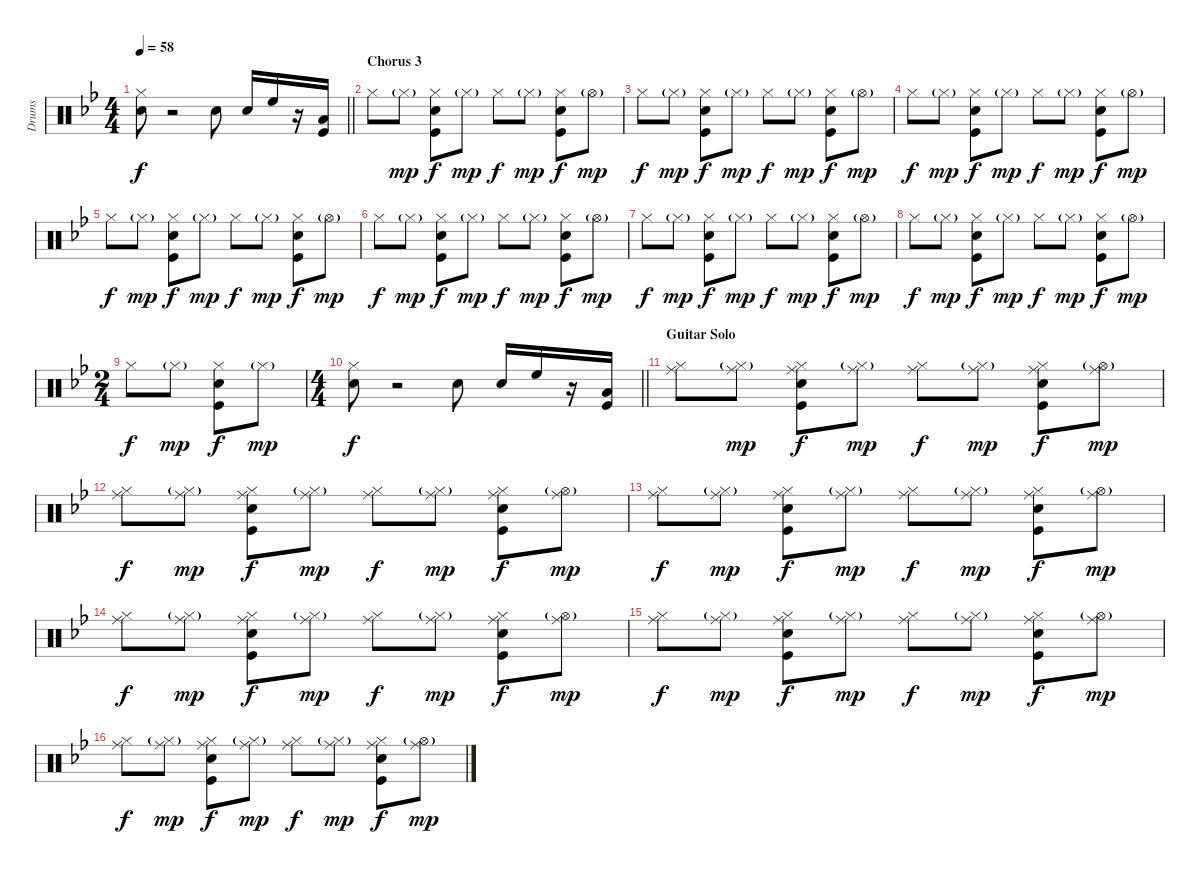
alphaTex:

\track ("Drums" "Drums") {instrument percussion}
\staff {score}
\articulation defaults
\ts (4 4)
\tempo 58
\clef neutral
\barLineRight lightlight
\ks bb
("Hi-Hat (closed)" "Snare (hit) 2").8{dy f} r.2 "Snare (hit) 2".8 "Snare (hit) 2".16 "High Floor Tom (hit)".16 r.16 ("Kick (hit)" "Low Tom (hit)").16 |
\section ("" "Chorus 3")
"Hi-Hat (closed)".8 "Hi-Hat (closed)"{g}.8{dy mp} ("Hi-Hat (closed)" "Kick (hit)" "Snare (hit) 2").8{dy f} "Hi-Hat (closed)"{g}.8{dy mp} "Hi-Hat (closed)".8{dy f} "Hi-Hat (closed)"{g}.8{dy mp} ("Hi-Hat (closed)" "Kick (hit)" "Snare (hit) 2").8{dy f} "Hi-Hat (open)"{g}.8{dy mp} |
"Hi-Hat (closed)".8{dy f} "Hi-Hat (closed)"{g}.8{dy mp} ("Hi-Hat (closed)" "Kick (hit)" "Snare (hit) 2").8{dy f} "Hi-Hat (closed)"{g}.8{dy mp} "Hi-Hat (closed)".8{dy f} "Hi-Hat (closed)"{g}.8{dy mp} ("Hi-Hat (closed)" "Kick (hit)" "Snare (hit) 2").8{dy f} "Hi-Hat (open)"{g}.8{dy mp} |
"Hi-Hat (closed)".8{dy f} "Hi-Hat (closed)"{g}.8{dy mp} ("Hi-Hat (closed)" "Kick (hit)" "Snare (hit) 2").8{dy f} "Hi-Hat (closed)"{g}.8{dy mp} "Hi-Hat (closed)".8{dy f} "Hi-Hat (closed)"{g}.8{dy mp} ("Hi-Hat (closed)" "Kick (hit)" "Snare (hit) 2").8{dy f} "Hi-Hat (open)"{g}.8{dy mp} |
"Hi-Hat (closed)".8{dy f} "Hi-Hat (closed)"{g}.8{dy mp} ("Hi-Hat (closed)" "Kick (hit)" "Snare (hit) 2").8{dy f} "Hi-Hat (closed)"{g}.8{dy mp} "Hi-Hat (closed)".8{dy f} "Hi-Hat (closed)"{g}.8{dy mp} ("Hi-Hat (closed)" "Kick (hit)" "Snare (hit) 2").8{dy f} "Hi-Hat (open)"{g}.8{dy mp} |
"Hi-Hat (closed)".8{dy f} "Hi-Hat (closed)"{g}.8{dy mp} ("Hi-Hat (closed)" "Kick (hit)" "Snare (hit) 2").8{dy f} "Hi-Hat (closed)"{g}.8{dy mp} "Hi-Hat (closed)".8{dy f} "Hi-Hat (closed)"{g}.8{dy mp} ("Hi-Hat (closed)" "Kick (hit)" "Snare (hit) 2").8{dy f} "Hi-Hat (open)"{g}.8{dy mp} |
"Hi-Hat (closed)".8{dy f} "Hi-Hat (closed)"{g}.8{dy mp} ("Hi-Hat (closed)" "Kick (hit)" "Snare (hit) 2").8{dy f} "Hi-Hat (closed)"{g}.8{dy mp} "Hi-Hat (closed)".8{dy f} "Hi-Hat (closed)"{g}.8{dy mp} ("Hi-Hat (closed)" "Kick (hit)" "Snare (hit) 2").8{dy f} "Hi-Hat (open)"{g}.8{dy mp} |
"Hi-Hat (closed)".8{dy f} "Hi-Hat (closed)"{g}.8{dy mp} ("Hi-Hat (closed)" "Kick (hit)" "Snare (hit) 2").8{dy f} "Hi-Hat (closed)"{g}.8{dy mp} "Hi-Hat (closed)".8{dy f} "Hi-Hat (closed)"{g}.8{dy mp} ("Hi-Hat (closed)" "Kick (hit)" "Snare (hit) 2").8{dy f} "Hi-Hat (open)"{g}.8{dy mp} |
\ts (2 4)
"Hi-Hat (closed)".8{dy f} "Hi-Hat (closed)"{g}.8{dy mp} ("Hi-Hat (closed)" "Kick (hit)" "Snare (hit) 2").8{dy f} "Hi-Hat (closed)"{g}.8{dy mp} |
\ts (4 4)
\barLineRight lightlight
("Hi-Hat (closed)" "Snare (hit) 2").8{dy f} r.2 "Snare (hit) 2".8 "Snare (hit) 2".16 "High Floor Tom (hit)".16 r.16 ("Kick (hit)" "Low Tom (hit)").16 |
\section ("" "Guitar Solo")
("Ride (middle)" "Hi-Hat (closed)").8 ("Ride (middle)" "Hi-Hat (closed)"{g}).8{dy mp} ("Ride (middle)" "Hi-Hat (closed)" "Kick (hit)" "Snare (hit) 2").8{dy f} ("Ride (middle)" "Hi-Hat (closed)"{g}).8{dy mp} ("Ride (middle)" "Hi-Hat (closed)").8{dy f} ("Ride (middle)" "Hi-Hat (closed)"{g}).8{dy mp} ("Ride (middle)" "Hi-Hat (closed)" "Kick (hit)" "Snare (hit) 2").8{dy f} ("Ride (middle)" "Hi-Hat (open)"{g}).8{dy mp} |
("Ride (middle)" "Hi-Hat (closed)").8{dy f} ("Ride (middle)" "Hi-Hat (closed)"{g}).8{dy mp} ("Ride (middle)" "Hi-Hat (closed)" "Kick (hit)" "Snare (hit) 2").8{dy f} ("Ride (middle)" "Hi-Hat (closed)"{g}).8{dy mp} ("Ride (middle)" "Hi-Hat (closed)").8{dy f} ("Ride (middle)" "Hi-Hat (closed)"{g}).8{dy mp} ("Ride (middle)" "Hi-Hat (closed)" "Kick (hit)" "Snare (hit) 2").8{dy f} ("Ride (middle)" "Hi-Hat (open)"{g}).8{dy mp} |
("Ride (middle)" "Hi-Hat (closed)").8{dy f} ("Ride (middle)" "Hi-Hat (closed)"{g}).8{dy mp} ("Ride (middle)" "Hi-Hat (closed)" "Kick (hit)" "Snare (hit) 2").8{dy f} ("Ride (middle)" "Hi-Hat (closed)"{g}).8{dy mp} ("Ride (middle)" "Hi-Hat (closed)").8{dy f} ("Ride (middle)" "Hi-Hat (closed)"{g}).8{dy mp} ("Ride (middle)" "Hi-Hat (closed)" "Kick (hit)" "Snare (hit) 2").8{dy f} ("Ride (middle)" "Hi-Hat (open)"{g}).8{dy mp} |
("Ride (middle)" "Hi-Hat (closed)").8{dy f} ("Ride (middle)" "Hi-Hat (closed)"{g}).8{dy mp} ("Ride (middle)" "Hi-Hat (closed)" "Kick (hit)" "Snare (hit) 2").8{dy f} ("Ride (middle)" "Hi-Hat (closed)"{g}).8{dy mp} ("Ride (middle)" "Hi-Hat (closed)").8{dy f} ("Ride (middle)" "Hi-Hat (closed)"{g}).8{dy mp} ("Ride (middle)" "Hi-Hat (closed)" "Kick (hit)" "Snare (hit) 2").8{dy f} ("Ride (middle)" "Hi-Hat (open)"{g}).8{dy mp} |
("Ride (middle)" "Hi-Hat (closed)").8{dy f} ("Ride (middle)" "Hi-Hat (closed)"{g}).8{dy mp} ("Ride (middle)" "Hi-Hat (closed)" "Kick (hit)" "Snare (hit) 2").8{dy f} ("Ride (middle)" "Hi-Hat (closed)"{g}).8{dy mp} ("Ride (middle)" "Hi-Hat (closed)").8{dy f} ("Ride (middle)" "Hi-Hat (closed)"{g}).8{dy mp} ("Ride (middle)" "Hi-Hat (closed)" "Kick (hit)" "Snare (hit) 2").8{dy f} ("Ride (middle)" "Hi-Hat (open)"{g}).8{dy mp} |
("Ride (middle)" "Hi-Hat (closed)").8{dy f} ("Ride (middle)" "Hi-Hat (closed)"{g}).8{dy mp} ("Ride (middle)" "Hi-Hat (closed)" "Kick (hit)" "Snare (hit) 2").8{dy f} ("Ride (middle)" "Hi-Hat (closed)"{g}).8{dy mp} ("Ride (middle)" "Hi-Hat (closed)").8{dy f} ("Ride (middle)" "Hi-Hat (closed)"{g}).8{dy mp} ("Ride (middle)" "Hi-Hat (closed)" "Kick (hit)" "Snare (hit) 2").8{dy f} ("Ride (middle)" "Hi-Hat (open)"{g}).8{dy mp}
